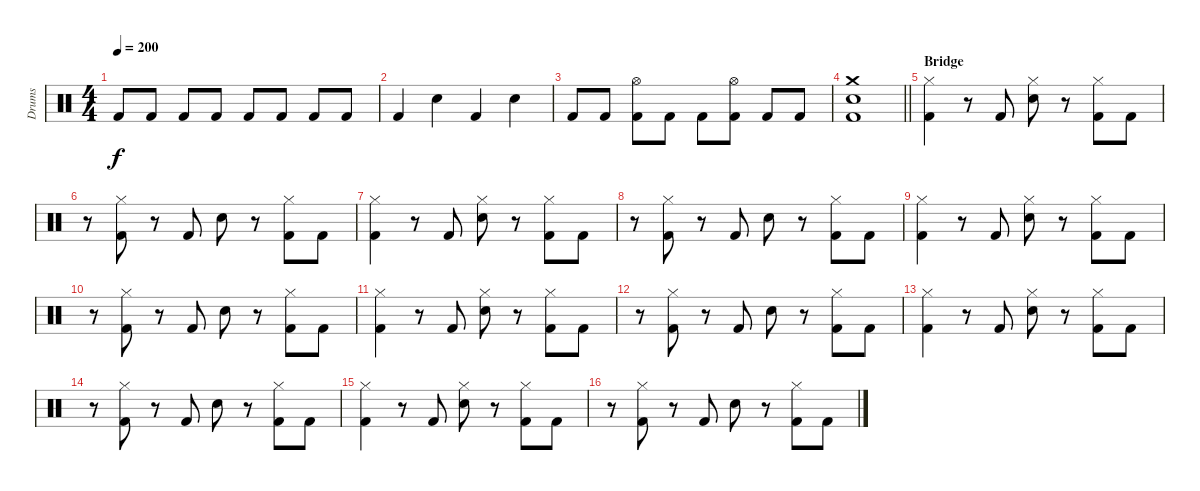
\track ("Drums" "Drums") {instrument percussion}
\staff {score}
\articulation defaults
\ts (4 4)
\tempo 200
\clef neutral
\ks c "Kick (hit) 2".8{dy f} "Kick (hit) 2".8 "Kick (hit) 2".8 "Kick (hit) 2".8 "Kick (hit) 2".8 "Kick (hit) 2".8 "Kick (hit) 2".8 "Kick (hit) 2".8
|
"Kick (hit) 2".4 "Snare (hit) 2".4 "Kick (hit) 2".4 "Snare (hit) 2".4 |
"Kick (hit) 2".8 "Kick (hit) 2".8 ("Hi-Hat (open)" "Kick (hit) 2").8 "Kick (hit) 2".8 "Kick (hit) 2".8 ("Hi-Hat (open)" "Kick (hit) 2").8 "Kick (hit) 2".8 "Kick (hit) 2".8 |
\barLineRight lightlight
("Crash medium (hit)" "Kick (hit) 2" "Snare (hit) 2").1 |
\section ("" "Bridge")
("Hi-Hat (closed)" "Kick (hit) 2").4 r.8 "Kick (hit) 2".8 ("Hi-Hat (closed)" "Snare (hit) 2").8 r.8 ("Hi-Hat (closed)" "Kick (hit) 2").8 "Kick (hit) 2".8 |
r.8 ("Hi-Hat (closed)" "Kick (hit) 2").8 r.8 "Kick (hit) 2".8 "Snare (hit) 2".8 r.8 ("Hi-Hat (closed)" "Kick (hit) 2").8 "Kick (hit) 2".8 |
("Hi-Hat (closed)" "Kick (hit) 2").4 r.8 "Kick (hit) 2".8 ("Hi-Hat (closed)" "Snare (hit) 2").8 r.8 ("Hi-Hat (closed)" "Kick (hit) 2").8 "Kick (hit) 2".8 |
r.8 ("Hi-Hat (closed)" "Kick (hit) 2").8 r.8 "Kick (hit) 2".8 "Snare (hit) 2".8 r.8 ("Hi-Hat (closed)" "Kick (hit) 2").8 "Kick (hit) 2".8 |
("Hi-Hat (closed)" "Kick (hit) 2").4 r.8 "Kick (hit) 2".8 ("Hi-Hat (closed)" "Snare (hit) 2").8 r.8 ("Hi-Hat (closed)" "Kick (hit) 2").8 "Kick (hit) 2".8 |
r.8 ("Hi-Hat (closed)" "Kick (hit) 2").8 r.8 "Kick (hit) 2".8 "Snare (hit) 2".8 r.8 ("Hi-Hat (closed)" "Kick (hit) 2").8 "Kick (hit) 2".8 |
("Hi-Hat (closed)" "Kick (hit) 2").4 r.8 "Kick (hit) 2".8 ("Hi-Hat (closed)" "Snare (hit) 2").8 r.8 ("Hi-Hat (closed)" "Kick (hit) 2").8 "Kick (hit) 2".8 |
r.8 ("Hi-Hat (closed)" "Kick (hit) 2").8 r.8 "Kick (hit) 2".8 "Snare (hit) 2".8 r.8 ("Hi-Hat (closed)" "Kick (hit) 2").8 "Kick (hit) 2".8 |
("Hi-Hat (closed)" "Kick (hit) 2").4 r.8 "Kick (hit) 2".8 ("Hi-Hat (closed)" "Snare (hit) 2").8 r.8 ("Hi-Hat (closed)" "Kick (hit) 2").8 "Kick (hit) 2".8 |
r.8 ("Hi-Hat (closed)" "Kick (hit) 2").8 r.8 "Kick (hit) 2".8 "Snare (hit) 2".8 r.8 ("Hi-Hat (closed)" "Kick (hit) 2").8 "Kick (hit) 2".8 |
("Hi-Hat (closed)" "Kick (hit) 2").4 r.8 "Kick (hit) 2".8 ("Hi-Hat (closed)" "Snare (hit) 2").8 r.8 ("Hi-Hat (closed)" "Kick (hit) 2").8 "Kick (hit) 2".8 |
r.8 ("Hi-Hat (closed)" "Kick (hit) 2").8 r.8 "Kick (hit) 2".8 "Snare (hit) 2".8 r.8 ("Hi-Hat (closed)" "Kick (hit) 2").8 "Kick (hit) 2".8
